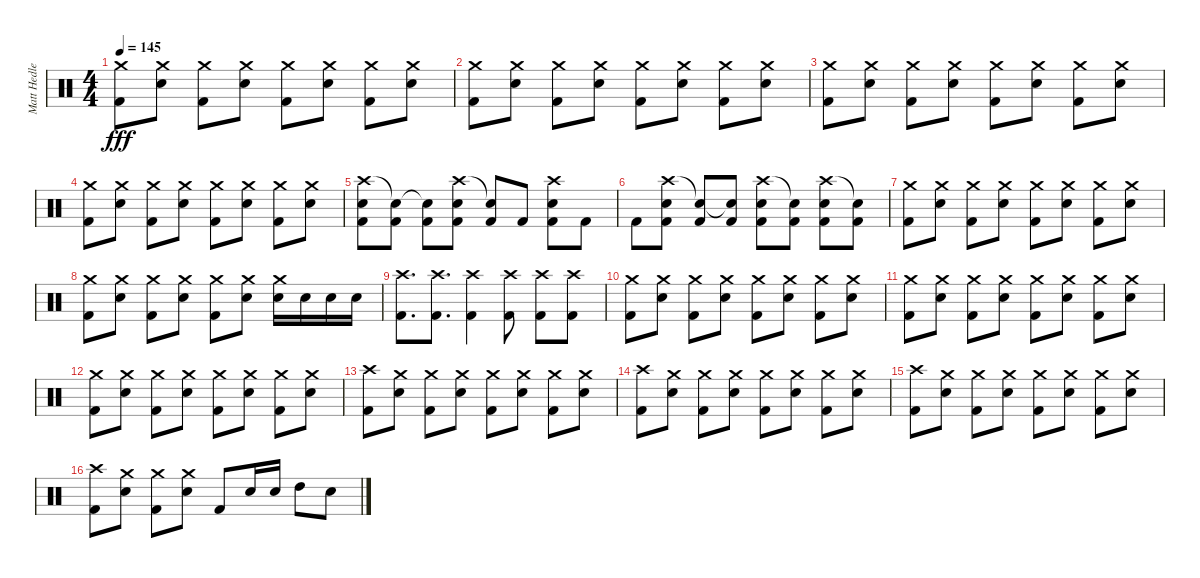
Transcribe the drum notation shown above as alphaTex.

\track ("Matt Hedlers" "Matt Hedle") {instrument percussion}
\staff {score}
\articulation defaults
\ts (4 4)
\tempo 145
\clef neutral
\ks c
("Crash medium (hit)" "Kick (hit) 2").8{dy fff} ("Crash medium (hit)" "Snare (hit) 2").8 ("Crash medium (hit)" "Kick (hit) 2").8 ("Crash medium (hit)" "Snare (hit) 2").8 ("Crash medium (hit)" "Kick (hit) 2").8 ("Crash medium (hit)" "Snare (hit) 2").8 ("Crash medium (hit)" "Kick (hit) 2").8 ("Crash medium (hit)" "Snare (hit) 2").8 |
("Crash medium (hit)" "Kick (hit) 2").8 ("Crash medium (hit)" "Snare (hit) 2").8 ("Crash medium (hit)" "Kick (hit) 2").8 ("Crash medium (hit)" "Snare (hit) 2").8 ("Crash medium (hit)" "Kick (hit) 2").8 ("Crash medium (hit)" "Snare (hit) 2").8 ("Crash medium (hit)" "Kick (hit) 2").8 ("Crash medium (hit)" "Snare (hit) 2").8 |
("Crash medium (hit)" "Kick (hit) 2").8 ("Crash medium (hit)" "Snare (hit) 2").8 ("Crash medium (hit)" "Kick (hit) 2").8 ("Crash medium (hit)" "Snare (hit) 2").8 ("Crash medium (hit)" "Kick (hit) 2").8 ("Crash medium (hit)" "Snare (hit) 2").8 ("Crash medium (hit)" "Kick (hit) 2").8 ("Crash medium (hit)" "Snare (hit) 2").8 |
("Crash medium (hit)" "Kick (hit) 2").8 ("Crash medium (hit)" "Snare (hit) 2").8 ("Crash medium (hit)" "Kick (hit) 2").8 ("Crash medium (hit)" "Snare (hit) 2").8 ("Crash medium (hit)" "Kick (hit) 2").8 ("Crash medium (hit)" "Snare (hit) 2").8 ("Crash medium (hit)" "Kick (hit) 2").8 ("Crash medium (hit)" "Snare (hit) 2").8 |
("Crash high (hit)" "Snare (hit) 2" "Kick (hit) 2").8 ("Snare (hit)"{t} "Kick (hit) 2").8 ("Snare (hit)"{t} "Kick (hit) 2").8 ("Crash high (hit)" "Snare (hit) 2" "Kick (hit) 2").8 ("Snare (hit)"{t} "Kick (hit) 2").8 "Kick (hit) 2".8 ("Crash high (hit)" "Snare (hit) 2" "Kick (hit) 2").8 "Kick (hit) 2".8 |
"Kick (hit) 2".8 ("Crash high (hit)" "Snare (hit) 2" "Kick (hit) 2").8 ("Snare (hit)"{t} "Kick (hit) 2").8 ("Snare (hit)"{t} "Kick (hit) 2").8 ("Crash high (hit)" "Snare (hit) 2" "Kick (hit) 2").8 ("Snare (hit)"{t} "Kick (hit) 2").8 ("Crash high (hit)" "Snare (hit) 2" "Kick (hit) 2").8 ("Snare (hit)"{t} "Kick (hit) 2").8 |
("Crash medium (hit)" "Kick (hit) 2").8 ("Crash medium (hit)" "Snare (hit) 2").8 ("Crash medium (hit)" "Kick (hit) 2").8 ("Crash medium (hit)" "Snare (hit) 2").8 ("Crash medium (hit)" "Kick (hit) 2").8 ("Crash medium (hit)" "Snare (hit) 2").8 ("Crash medium (hit)" "Kick (hit) 2").8 ("Crash medium (hit)" "Snare (hit) 2").8 |
("Crash medium (hit)" "Kick (hit) 2").8 ("Crash medium (hit)" "Snare (hit) 2").8 ("Crash medium (hit)" "Kick (hit) 2").8 ("Crash medium (hit)" "Snare (hit) 2").8 ("Crash medium (hit)" "Kick (hit) 2").8 ("Crash medium (hit)" "Snare (hit) 2").8 ("Crash medium (hit)" "Snare (hit) 2").16 "Snare (hit) 2".16 "Snare (hit) 2".16 "Snare (hit) 2".16 |
("Crash high (hit)" "Kick (hit) 2").8{d} ("Crash high (hit)" "Kick (hit) 2").8{d} ("Crash high (hit)" "Kick (hit) 2").4 ("Crash high (hit)" "Kick (hit) 2").8 ("Crash high (hit)" "Kick (hit) 2").8 ("Crash high (hit)" "Kick (hit) 2").8 |
("Crash medium (hit)" "Kick (hit) 2").8 ("Crash medium (hit)" "Snare (hit) 2").8 ("Crash medium (hit)" "Kick (hit) 2").8 ("Crash medium (hit)" "Snare (hit) 2").8 ("Crash medium (hit)" "Kick (hit) 2").8 ("Crash medium (hit)" "Snare (hit) 2").8 ("Crash medium (hit)" "Kick (hit) 2").8 ("Crash medium (hit)" "Snare (hit) 2").8 |
("Crash medium (hit)" "Kick (hit) 2").8 ("Crash medium (hit)" "Snare (hit) 2").8 ("Crash medium (hit)" "Kick (hit) 2").8 ("Crash medium (hit)" "Snare (hit) 2").8 ("Crash medium (hit)" "Kick (hit) 2").8 ("Crash medium (hit)" "Snare (hit) 2").8 ("Crash medium (hit)" "Kick (hit) 2").8 ("Crash medium (hit)" "Snare (hit) 2").8 |
("Crash medium (hit)" "Kick (hit) 2").8 ("Crash medium (hit)" "Snare (hit) 2").8 ("Crash medium (hit)" "Kick (hit) 2").8 ("Crash medium (hit)" "Snare (hit) 2").8 ("Crash medium (hit)" "Kick (hit) 2").8 ("Crash medium (hit)" "Snare (hit) 2").8 ("Crash medium (hit)" "Kick (hit) 2").8 ("Crash medium (hit)" "Snare (hit) 2").8 |
("Crash high (hit)" "Kick (hit) 2").8 ("Crash medium (hit)" "Snare (hit) 2").8 ("Crash medium (hit)" "Kick (hit) 2").8 ("Crash medium (hit)" "Snare (hit) 2").8 ("Crash medium (hit)" "Kick (hit) 2").8 ("Crash medium (hit)" "Snare (hit) 2").8 ("Crash medium (hit)" "Kick (hit) 2").8 ("Crash medium (hit)" "Snare (hit) 2").8 |
("Crash high (hit)" "Kick (hit) 2").8 ("Crash medium (hit)" "Snare (hit) 2").8 ("Crash medium (hit)" "Kick (hit) 2").8 ("Crash medium (hit)" "Snare (hit) 2").8 ("Crash medium (hit)" "Kick (hit) 2").8 ("Crash medium (hit)" "Snare (hit) 2").8 ("Crash medium (hit)" "Kick (hit) 2").8 ("Crash medium (hit)" "Snare (hit) 2").8 |
("Crash high (hit)" "Kick (hit) 2").8 ("Crash medium (hit)" "Snare (hit) 2").8 ("Crash medium (hit)" "Kick (hit) 2").8 ("Crash medium (hit)" "Snare (hit) 2").8 ("Crash medium (hit)" "Kick (hit) 2").8 ("Crash medium (hit)" "Snare (hit) 2").8 ("Crash medium (hit)" "Kick (hit) 2").8 ("Crash medium (hit)" "Snare (hit) 2").8 |
("Crash high (hit)" "Kick (hit) 2").8 ("Crash medium (hit)" "Snare (hit) 2").8 ("Crash medium (hit)" "Kick (hit) 2").8 ("Crash medium (hit)" "Snare (hit) 2").8 "Kick (hit) 2".8 "Snare (hit) 2".16 "Snare (hit) 2".16 "High Tom (hit)".8 "Snare (hit) 2".8
